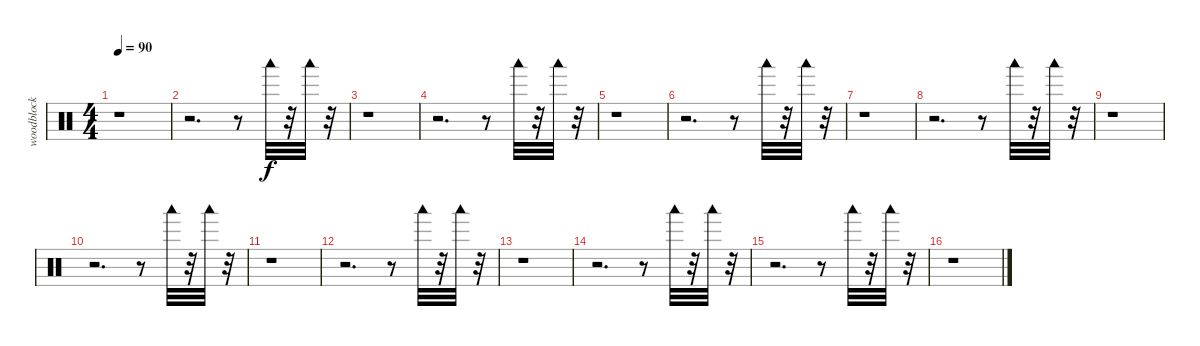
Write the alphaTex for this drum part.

\track ("woodblock" "woodblock") {instrument percussion}
\staff {score}
\articulation defaults
\ts (4 4)
\tempo 90
\clef neutral
\ks c
r.1{dy f} |
r.2{d} r.8 "Woodblock low (hit)".32 r.32 "Woodblock low (hit)".32 r.32 |
r.1 |
r.2{d} r.8 "Woodblock low (hit)".32 r.32 "Woodblock low (hit)".32 r.32 |
r.1 |
r.2{d} r.8 "Woodblock low (hit)".32 r.32 "Woodblock low (hit)".32 r.32 |
r.1 |
r.2{d} r.8 "Woodblock low (hit)".32 r.32 "Woodblock low (hit)".32 r.32 |
r.1 |
r.2{d} r.8 "Woodblock low (hit)".32 r.32 "Woodblock low (hit)".32 r.32 |
r.1 |
r.2{d} r.8 "Woodblock low (hit)".32 r.32 "Woodblock low (hit)".32 r.32 |
r.1 |
r.2{d} r.8 "Woodblock low (hit)".32 r.32 "Woodblock low (hit)".32 r.32 |
r.2{d} r.8 "Woodblock low (hit)".32 r.32 "Woodblock low (hit)".32 r.32 |
r.1
